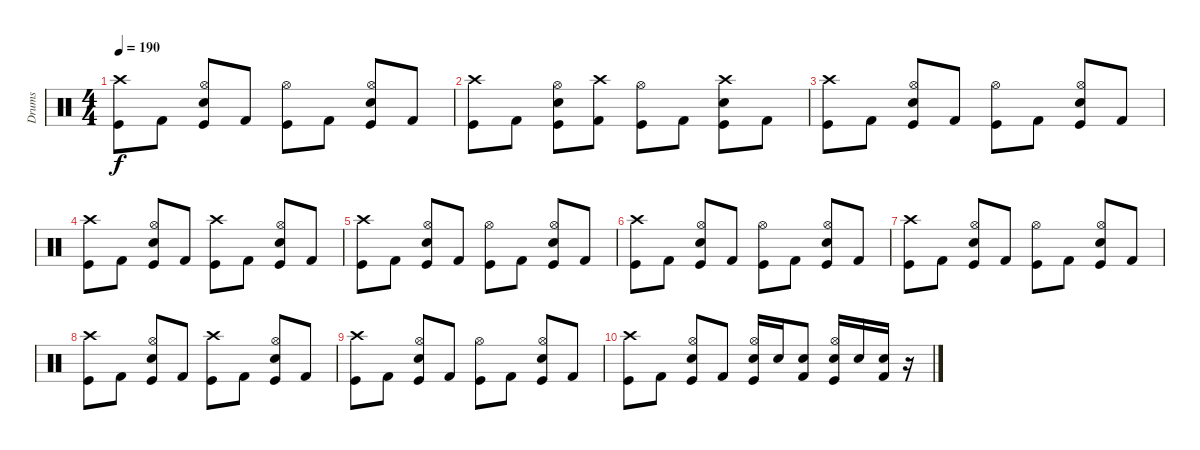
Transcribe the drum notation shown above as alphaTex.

\track ("Drums" "Drums") {instrument percussion}
\staff {score}
\articulation defaults
\ts (4 4)
\tempo 190
\clef neutral
\ks c
("Crash high (hit)" "Kick (hit)").8{dy f} "Kick (hit) 2".8 ("Hi-Hat (open)" "Snare (hit) 2" "Kick (hit)").8 "Kick (hit) 2".8 ("Hi-Hat (open)" "Kick (hit)").8 "Kick (hit) 2".8 ("Hi-Hat (open)" "Snare (hit) 2" "Kick (hit)").8 "Kick (hit) 2".8 |
("Crash high (hit)" "Kick (hit)").8 "Kick (hit) 2".8 ("Hi-Hat (open)" "Snare (hit) 2" "Kick (hit)").8 ("Crash high (hit)" "Kick (hit) 2").8 ("Hi-Hat (open)" "Kick (hit)").8 "Kick (hit) 2".8 ("Crash high (hit)" "Snare (hit) 2" "Kick (hit)").8 "Kick (hit) 2".8 |
("Crash high (hit)" "Kick (hit)").8 "Kick (hit) 2".8 ("Hi-Hat (open)" "Snare (hit) 2" "Kick (hit)").8 "Kick (hit) 2".8 ("Hi-Hat (open)" "Kick (hit)").8 "Kick (hit) 2".8 ("Hi-Hat (open)" "Snare (hit) 2" "Kick (hit)").8 "Kick (hit) 2".8 |
("Crash high (hit)" "Kick (hit)").8 "Kick (hit) 2".8 ("Hi-Hat (open)" "Snare (hit) 2" "Kick (hit)").8 "Kick (hit) 2".8 ("Crash high (hit)" "Kick (hit)").8 "Kick (hit) 2".8 ("Hi-Hat (open)" "Snare (hit) 2" "Kick (hit)").8 "Kick (hit) 2".8 |
("Crash high (hit)" "Kick (hit)").8 "Kick (hit) 2".8 ("Hi-Hat (open)" "Snare (hit) 2" "Kick (hit)").8 "Kick (hit) 2".8 ("Hi-Hat (open)" "Kick (hit)").8 "Kick (hit) 2".8 ("Hi-Hat (open)" "Snare (hit) 2" "Kick (hit)").8 "Kick (hit) 2".8 |
("Crash high (hit)" "Kick (hit)").8 "Kick (hit) 2".8 ("Hi-Hat (open)" "Snare (hit) 2" "Kick (hit)").8 "Kick (hit) 2".8 ("Hi-Hat (open)" "Kick (hit)").8 "Kick (hit) 2".8 ("Hi-Hat (open)" "Snare (hit) 2" "Kick (hit)").8 "Kick (hit) 2".8 |
("Crash high (hit)" "Kick (hit)").8 "Kick (hit) 2".8 ("Hi-Hat (open)" "Snare (hit) 2" "Kick (hit)").8 "Kick (hit) 2".8 ("Hi-Hat (open)" "Kick (hit)").8 "Kick (hit) 2".8 ("Hi-Hat (open)" "Snare (hit) 2" "Kick (hit)").8 "Kick (hit) 2".8 |
("Crash high (hit)" "Kick (hit)").8 "Kick (hit) 2".8 ("Hi-Hat (open)" "Snare (hit) 2" "Kick (hit)").8 "Kick (hit) 2".8 ("Crash high (hit)" "Kick (hit)").8 "Kick (hit) 2".8 ("Hi-Hat (open)" "Snare (hit) 2" "Kick (hit)").8 "Kick (hit) 2".8 |
("Crash high (hit)" "Kick (hit)").8 "Kick (hit) 2".8 ("Hi-Hat (open)" "Snare (hit) 2" "Kick (hit)").8 "Kick (hit) 2".8 ("Hi-Hat (open)" "Kick (hit)").8 "Kick (hit) 2".8 ("Hi-Hat (open)" "Snare (hit) 2" "Kick (hit)").8 "Kick (hit) 2".8 |
("Crash high (hit)" "Kick (hit)").8 "Kick (hit) 2".8 ("Hi-Hat (open)" "Snare (hit) 2" "Kick (hit)").8 "Kick (hit) 2".8 ("Hi-Hat (open)" "Snare (hit) 2" "Kick (hit)").16 "Snare (hit) 2".16 ("Snare (hit) 2" "Kick (hit) 2").8 ("Hi-Hat (open)" "Snare (hit) 2" "Kick (hit)").16 "Snare (hit) 2".16 ("Snare (hit) 2" "Kick (hit) 2").16 r.16
